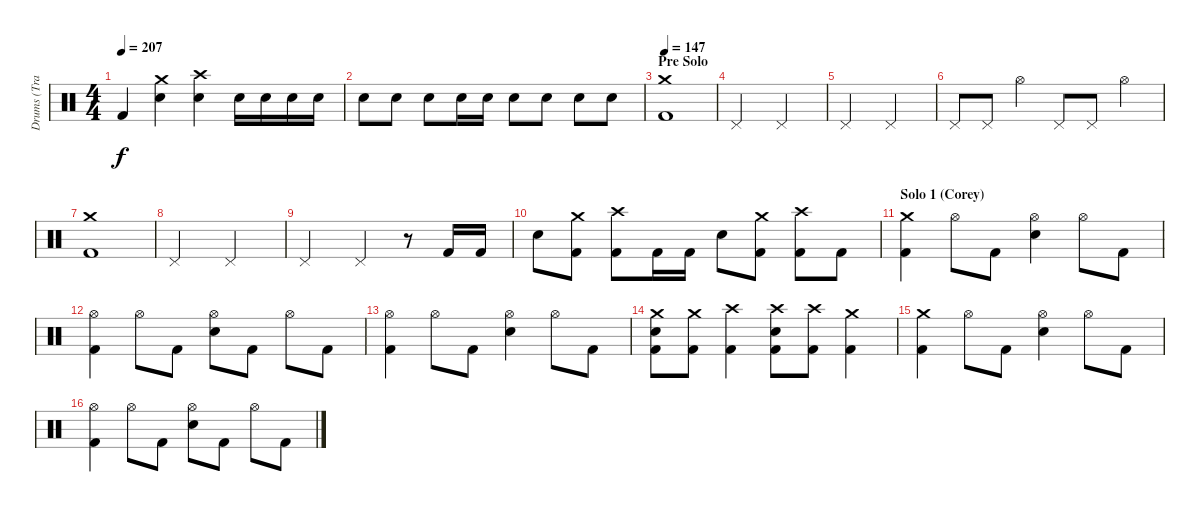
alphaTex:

\track ("Drums (Travis)" "Drums (Tra") {instrument percussion}
\staff {score}
\articulation defaults
\ts (4 4)
\tempo 207
\clef neutral
\ks c "Kick (hit) 2".4{dy f}
("Crash medium (hit)" "Snare (hit) 2").4 ("Crash high (hit)" "Snare (hit) 2").4 "Snare (hit) 2".16 "Snare (hit) 2".16 "Snare (hit) 2".16 "Snare (hit) 2".16 |
"Snare (hit) 2".8 "Snare (hit) 2".8 "Snare (hit) 2".8 "Snare (hit) 2".16 "Snare (hit) 2".16 "Snare (hit) 2".8 "Snare (hit) 2".8 "Snare (hit) 2".8 "Snare (hit) 2".8 |
\section ("" "Pre Solo")
\tempo 147
("Crash medium (hit)" "Kick (hit) 2").1 |
"Pedal Hi-Hat (hit)".2 "Pedal Hi-Hat (hit)".2 |
"Pedal Hi-Hat (hit)".2 "Pedal Hi-Hat (hit)".2 |
"Pedal Hi-Hat (hit)".8 "Pedal Hi-Hat (hit)".8 "Hi-Hat (open)".4 "Pedal Hi-Hat (hit)".8 "Pedal Hi-Hat (hit)".8 "Hi-Hat (open)".4 |
("Crash medium (hit)" "Kick (hit) 2").1 |
"Pedal Hi-Hat (hit)".2 "Pedal Hi-Hat (hit)".2 |
"Pedal Hi-Hat (hit)".2 "Pedal Hi-Hat (hit)".4 r.8 "Kick (hit) 2".16 "Kick (hit) 2".16 |
"Snare (hit) 2".8 ("Crash medium (hit)" "Kick (hit) 2").8 ("Crash high (hit)" "Kick (hit) 2").8 "Kick (hit) 2".16 "Kick (hit) 2".16 "Snare (hit) 2".8 ("Crash medium (hit)" "Kick (hit) 2").8 ("Crash high (hit)" "Kick (hit) 2").8 "Kick (hit) 2".8 |
\section ("" "Solo 1 (Corey)")
("Crash medium (hit)" "Kick (hit) 2").4 "Hi-Hat (open)".8 "Kick (hit) 2".8 ("Hi-Hat (open)" "Snare (hit) 2").4 "Hi-Hat (open)".8 "Kick (hit) 2".8 |
("Hi-Hat (open)" "Kick (hit) 2").4 "Hi-Hat (open)".8 "Kick (hit) 2".8 ("Hi-Hat (open)" "Snare (hit) 2").8 "Kick (hit) 2".8 "Hi-Hat (open)".8 "Kick (hit) 2".8 |
("Hi-Hat (open)" "Kick (hit) 2").4 "Hi-Hat (open)".8 "Kick (hit) 2".8 ("Hi-Hat (open)" "Snare (hit) 2").4 "Hi-Hat (open)".8 "Kick (hit) 2".8 |
("Crash medium (hit)" "Snare (hit) 2" "Kick (hit) 2").8 ("Crash medium (hit)" "Kick (hit) 2").8 ("Crash high (hit)" "Kick (hit) 2").4 ("Crash high (hit)" "Snare (hit) 2" "Kick (hit) 2").8 ("Crash high (hit)" "Kick (hit) 2").8 ("Crash medium (hit)" "Kick (hit) 2").4 |
("Crash medium (hit)" "Kick (hit) 2").4 "Hi-Hat (open)".8 "Kick (hit) 2".8 ("Hi-Hat (open)" "Snare (hit) 2").4 "Hi-Hat (open)".8 "Kick (hit) 2".8 |
("Hi-Hat (open)" "Kick (hit) 2").4 "Hi-Hat (open)".8 "Kick (hit) 2".8 ("Hi-Hat (open)" "Snare (hit) 2").8 "Kick (hit) 2".8 "Hi-Hat (open)".8 "Kick (hit) 2".8
